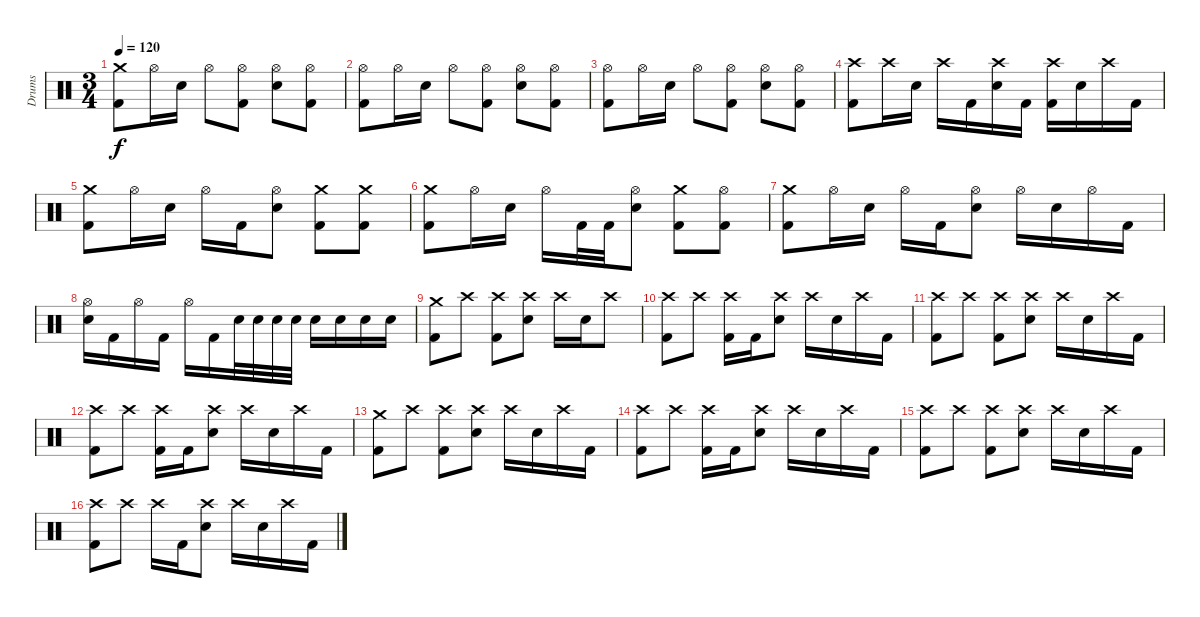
\track ("Drums" "Drums") {instrument percussion}
\staff {score}
\articulation defaults
\ts (3 4)
\tempo 120
\clef neutral
\ks c
("Crash medium (hit)" "Kick (hit) 2").8{dy f} "Hi-Hat (open)".16 "Electric Snare (hit)".16 "Hi-Hat (open)".8 ("Hi-Hat (open)" "Kick (hit) 2").8 ("Hi-Hat (open)" "Electric Snare (hit)").8 ("Hi-Hat (open)" "Kick (hit) 2").8 |
("Hi-Hat (open)" "Kick (hit) 2").8 "Hi-Hat (open)".16 "Electric Snare (hit)".16 "Hi-Hat (open)".8 ("Hi-Hat (open)" "Kick (hit) 2").8 ("Hi-Hat (open)" "Electric Snare (hit)").8 ("Hi-Hat (open)" "Kick (hit) 2").8 |
("Hi-Hat (open)" "Kick (hit) 2").8 "Hi-Hat (open)".16 "Electric Snare (hit)".16 "Hi-Hat (open)".8 ("Hi-Hat (open)" "Kick (hit) 2").8 ("Hi-Hat (open)" "Electric Snare (hit)").8 ("Hi-Hat (open)" "Kick (hit) 2").8 |
("Crash high (hit)" "Kick (hit) 2").8 "Crash high (hit)".16 "Electric Snare (hit)".16 "Crash high (hit)".16 "Kick (hit) 2".16 ("Crash high (hit)" "Electric Snare (hit)").16 "Kick (hit) 2".16 ("Crash high (hit)" "Kick (hit) 2").16 "Electric Snare (hit)".16 "Crash high (hit)".16 "Kick (hit) 2".16 |
("Crash medium (hit)" "Kick (hit) 2").8 "Hi-Hat (open)".16 "Electric Snare (hit)".16 "Hi-Hat (open)".16 "Kick (hit) 2".16 ("Hi-Hat (open)" "Electric Snare (hit)").8 ("Crash medium (hit)" "Kick (hit) 2").8 ("Crash medium (hit)" "Kick (hit) 2").8 |
("Crash medium (hit)" "Kick (hit) 2").8 "Hi-Hat (open)".16 "Electric Snare (hit)".16 "Hi-Hat (open)".16 "Kick (hit) 2".32 "Kick (hit) 2".32 ("Hi-Hat (open)" "Electric Snare (hit)").8 ("Crash medium (hit)" "Kick (hit) 2").8 ("Hi-Hat (open)" "Kick (hit) 2").8 |
("Crash medium (hit)" "Kick (hit) 2").8 "Hi-Hat (open)".16 "Electric Snare (hit)".16 "Hi-Hat (open)".16 "Kick (hit) 2".16 ("Hi-Hat (open)" "Electric Snare (hit)").8 "Hi-Hat (open)".16 "Electric Snare (hit)".16 "Hi-Hat (open)".16 "Kick (hit) 2".16 |
("Hi-Hat (open)" "Electric Snare (hit)").16 "Kick (hit) 2".16 "Hi-Hat (open)".16 "Kick (hit) 2".16 "Hi-Hat (open)".16 "Kick (hit) 2".16 "Electric Snare (hit)".32{volume 8} "Electric Snare (hit)".32{volume 13} "Electric Snare (hit)".32 "Electric Snare (hit)".32 "Electric Snare (hit)".16 "Electric Snare (hit)".16 "Electric Snare (hit)".16 "Electric Snare (hit)".16 |
("Crash medium (hit)" "Kick (hit) 2").8 "Crash high (hit)".8 ("Crash high (hit)" "Kick (hit) 2").8 ("Crash high (hit)" "Electric Snare (hit)").8 "Crash high (hit)".16 "Electric Snare (hit)".16 "Crash high (hit)".8 |
("Crash high (hit)" "Kick (hit) 2").8 "Crash high (hit)".8 ("Crash high (hit)" "Kick (hit) 2").16 "Kick (hit) 2".16 ("Crash high (hit)" "Electric Snare (hit)").8 "Crash high (hit)".16 "Electric Snare (hit)".16 "Crash high (hit)".16 "Kick (hit) 2".16 |
("Crash high (hit)" "Kick (hit) 2").8 "Crash high (hit)".8 ("Crash high (hit)" "Kick (hit) 2").8 ("Crash high (hit)" "Electric Snare (hit)").8 "Crash high (hit)".16 "Electric Snare (hit)".16 "Crash high (hit)".16 "Kick (hit) 2".16 |
("Crash high (hit)" "Kick (hit) 2").8 "Crash high (hit)".8 ("Crash high (hit)" "Kick (hit) 2").16 "Kick (hit) 2".16 ("Crash high (hit)" "Electric Snare (hit)").8 "Crash high (hit)".16 "Electric Snare (hit)".16 "Crash high (hit)".16 "Kick (hit) 2".16 |
("Crash medium (hit)" "Kick (hit) 2").8 "Crash high (hit)".8 ("Crash high (hit)" "Kick (hit) 2").8 ("Crash high (hit)" "Electric Snare (hit)").8 "Crash high (hit)".16 "Electric Snare (hit)".16 "Crash high (hit)".16 "Kick (hit) 2".16 |
("Crash high (hit)" "Kick (hit) 2").8 "Crash high (hit)".8 ("Crash high (hit)" "Kick (hit) 2").16 "Kick (hit) 2".16 ("Crash high (hit)" "Electric Snare (hit)").8 "Crash high (hit)".16 "Electric Snare (hit)".16 "Crash high (hit)".16 "Kick (hit) 2".16 |
("Crash high (hit)" "Kick (hit) 2").8 "Crash high (hit)".8 ("Crash high (hit)" "Kick (hit) 2").8 ("Crash high (hit)" "Electric Snare (hit)").8 "Crash high (hit)".16 "Electric Snare (hit)".16 "Crash high (hit)".16 "Kick (hit) 2".16 |
("Crash high (hit)" "Kick (hit) 2").8 "Crash high (hit)".8 "Crash high (hit)".16 "Kick (hit) 2".16 ("Crash high (hit)" "Electric Snare (hit)").8 "Crash high (hit)".16 "Electric Snare (hit)".16 "Crash high (hit)".16 "Kick (hit) 2".16
